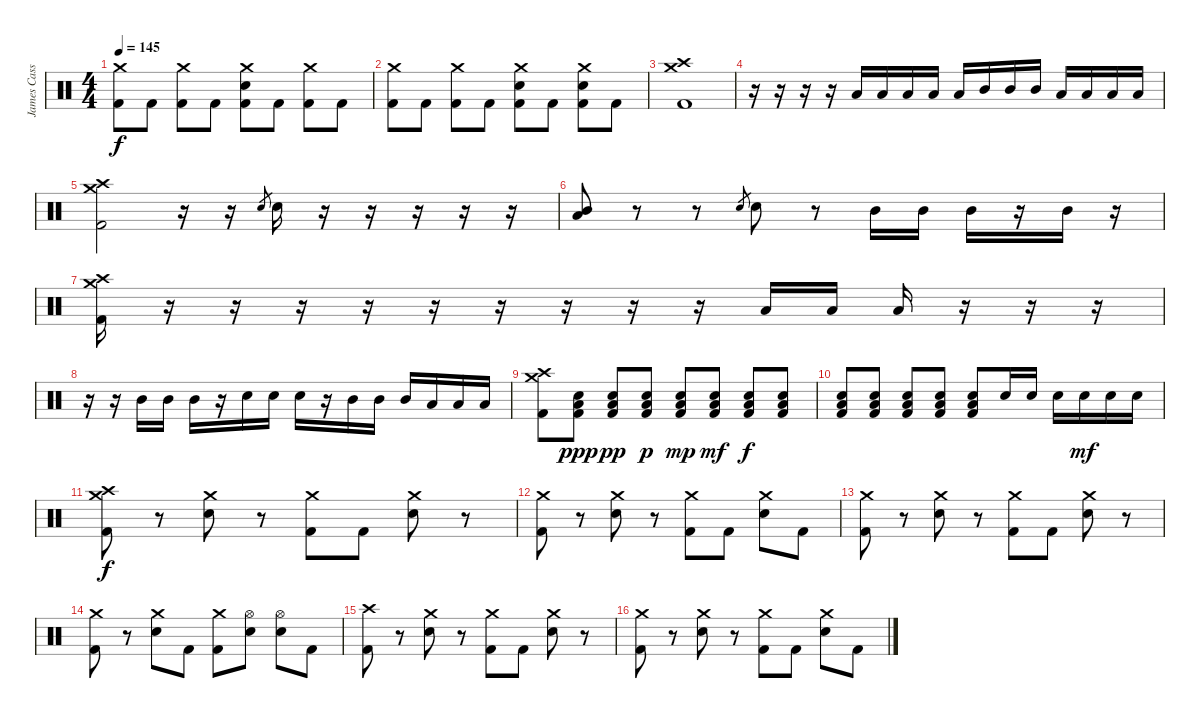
\track ("James Cassells" "James Cass") {instrument percussion}
\staff {score}
\articulation defaults
\ts (4 4)
\tempo 145
\clef neutral
\ks c
("Crash medium (hit)" "Kick (hit) 2").8{dy f} "Kick (hit) 2".8 ("Crash medium (hit)" "Kick (hit) 2").8 "Kick (hit) 2".8 ("Crash medium (hit)" "Electric Snare (hit)" "Kick (hit) 2").8 "Kick (hit) 2".8 ("Crash medium (hit)" "Kick (hit) 2").8 "Kick (hit) 2".8 |
("Crash medium (hit)" "Kick (hit) 2").8 "Kick (hit) 2".8 ("Crash medium (hit)" "Kick (hit) 2").8 "Kick (hit) 2".8 ("Crash medium (hit)" "Electric Snare (hit)" "Kick (hit) 2").8 "Kick (hit) 2".8 ("Crash medium (hit)" "Electric Snare (hit)" "Kick (hit) 2").8 "Kick (hit) 2".8 |
("Crash high (hit)" "Crash medium (hit)" "Kick (hit) 2").1 |
r.16 r.16 r.16 r.16 "Low Tom (hit)".16 "Low Tom (hit)".16 "Low Tom (hit)".16 "Low Tom (hit)".16 "Low Tom (hit)".16 "Mid Tom (hit)".16 "Mid Tom (hit)".16 "Mid Tom (hit)".16 "Low Floor Tom (hit)".16 "Low Floor Tom (hit)".16 "Low Floor Tom (hit)".16 "Low Floor Tom (hit)".16 |
("Crash high (hit)" "Crash medium (hit)" "Kick (hit) 2").2 r.16 r.16 "Electric Snare (hit)".8{gr} "Electric Snare (hit)".16 r.16 r.16 r.16 r.16 r.16 |
("Mid Tom (hit)" "Low Tom (hit)").8 r.8 r.8 "Electric Snare (hit)".8{gr} "Electric Snare (hit)".8 r.8 "Mid Tom (hit)".16 "Mid Tom (hit)".16 "Mid Tom (hit)".16 r.16 "Mid Tom (hit)".16 r.16 |
("Crash high (hit)" "Crash medium (hit)" "Kick (hit) 2").16 r.16 r.16 r.16 r.16 r.16 r.16 r.16 r.16 r.16 "Low Tom (hit)".16 "Low Tom (hit)".16 "Low Tom (hit)".16 r.16 r.16 r.16 |
r.16 r.16 "Mid Tom (hit)".16 "Mid Tom (hit)".16 "Mid Tom (hit)".16 r.16 "Electric Snare (hit)".16 "Electric Snare (hit)".16 "Electric Snare (hit)".16 r.16 "Mid Tom (hit)".16 "Mid Tom (hit)".16 "Mid Tom (hit)".16 "Low Floor Tom (hit)".16 "Low Floor Tom (hit)".16 "Low Floor Tom (hit)".16 |
("Crash high (hit)" "Crash medium (hit)" "Kick (hit) 2").8 ("Low Floor Tom (hit)" "Electric Snare (hit)" "Kick (hit) 2").8{dy ppp} ("Low Floor Tom (hit)" "Electric Snare (hit)" "Kick (hit) 2").8{dy pp} ("Low Floor Tom (hit)" "Electric Snare (hit)" "Kick (hit) 2").8{dy p} ("Low Floor Tom (hit)" "Electric Snare (hit)" "Kick (hit) 2").8{dy mp} ("Low Floor Tom (hit)" "Electric Snare (hit)" "Kick (hit) 2").8{dy mf} ("Low Floor Tom (hit)" "Electric Snare (hit)" "Kick (hit) 2").8{dy f} ("Low Floor Tom (hit)" "Electric Snare (hit)" "Kick (hit) 2").8 |
("Low Floor Tom (hit)" "Electric Snare (hit)" "Kick (hit) 2").8 ("Low Floor Tom (hit)" "Electric Snare (hit)" "Kick (hit) 2").8 ("Low Floor Tom (hit)" "Electric Snare (hit)" "Kick (hit) 2").8 ("Low Floor Tom (hit)" "Electric Snare (hit)" "Kick (hit) 2").8 ("Low Floor Tom (hit)" "Electric Snare (hit)" "Kick (hit) 2").8 "Electric Snare (hit)".16 "Electric Snare (hit)".16 "Electric Snare (hit)".16 "Electric Snare (hit)".16{dy mf} "Electric Snare (hit)".16 "Electric Snare (hit)".16 |
("Crash high (hit)" "Crash medium (hit)" "Kick (hit) 2").8{dy f} r.8 ("Crash medium (hit)" "Electric Snare (hit)").8 r.8 ("Crash medium (hit)" "Kick (hit) 2").8 "Kick (hit) 2".8 ("Crash medium (hit)" "Electric Snare (hit)").8 r.8 |
("Crash medium (hit)" "Kick (hit) 2").8 r.8 ("Crash medium (hit)" "Electric Snare (hit)").8 r.8 ("Crash medium (hit)" "Kick (hit) 2").8 "Kick (hit) 2".8 ("Crash medium (hit)" "Electric Snare (hit)").8 "Kick (hit) 2".8 |
("Crash medium (hit)" "Kick (hit) 2").8 r.8 ("Crash medium (hit)" "Electric Snare (hit)").8 r.8 ("Crash medium (hit)" "Kick (hit) 2").8 "Kick (hit) 2".8 ("Crash medium (hit)" "Electric Snare (hit)").8 r.8 |
("Crash medium (hit)" "Kick (hit) 2").8 r.8 ("Crash medium (hit)" "Electric Snare (hit)").8 "Kick (hit) 2".8 ("Crash medium (hit)" "Kick (hit) 2").8 ("Hi-Hat (open)" "Electric Snare (hit)").8 ("Hi-Hat (open)" "Electric Snare (hit)").8 "Kick (hit) 2".8 |
("Crash high (hit)" "Kick (hit) 2").8 r.8 ("Crash medium (hit)" "Electric Snare (hit)").8 r.8 ("Crash medium (hit)" "Kick (hit) 2").8 "Kick (hit) 2".8 ("Crash medium (hit)" "Electric Snare (hit)").8 r.8 |
("Crash medium (hit)" "Kick (hit) 2").8 r.8 ("Crash medium (hit)" "Electric Snare (hit)").8 r.8 ("Crash medium (hit)" "Kick (hit) 2").8 "Kick (hit) 2".8 ("Crash medium (hit)" "Electric Snare (hit)").8 "Kick (hit) 2".8
